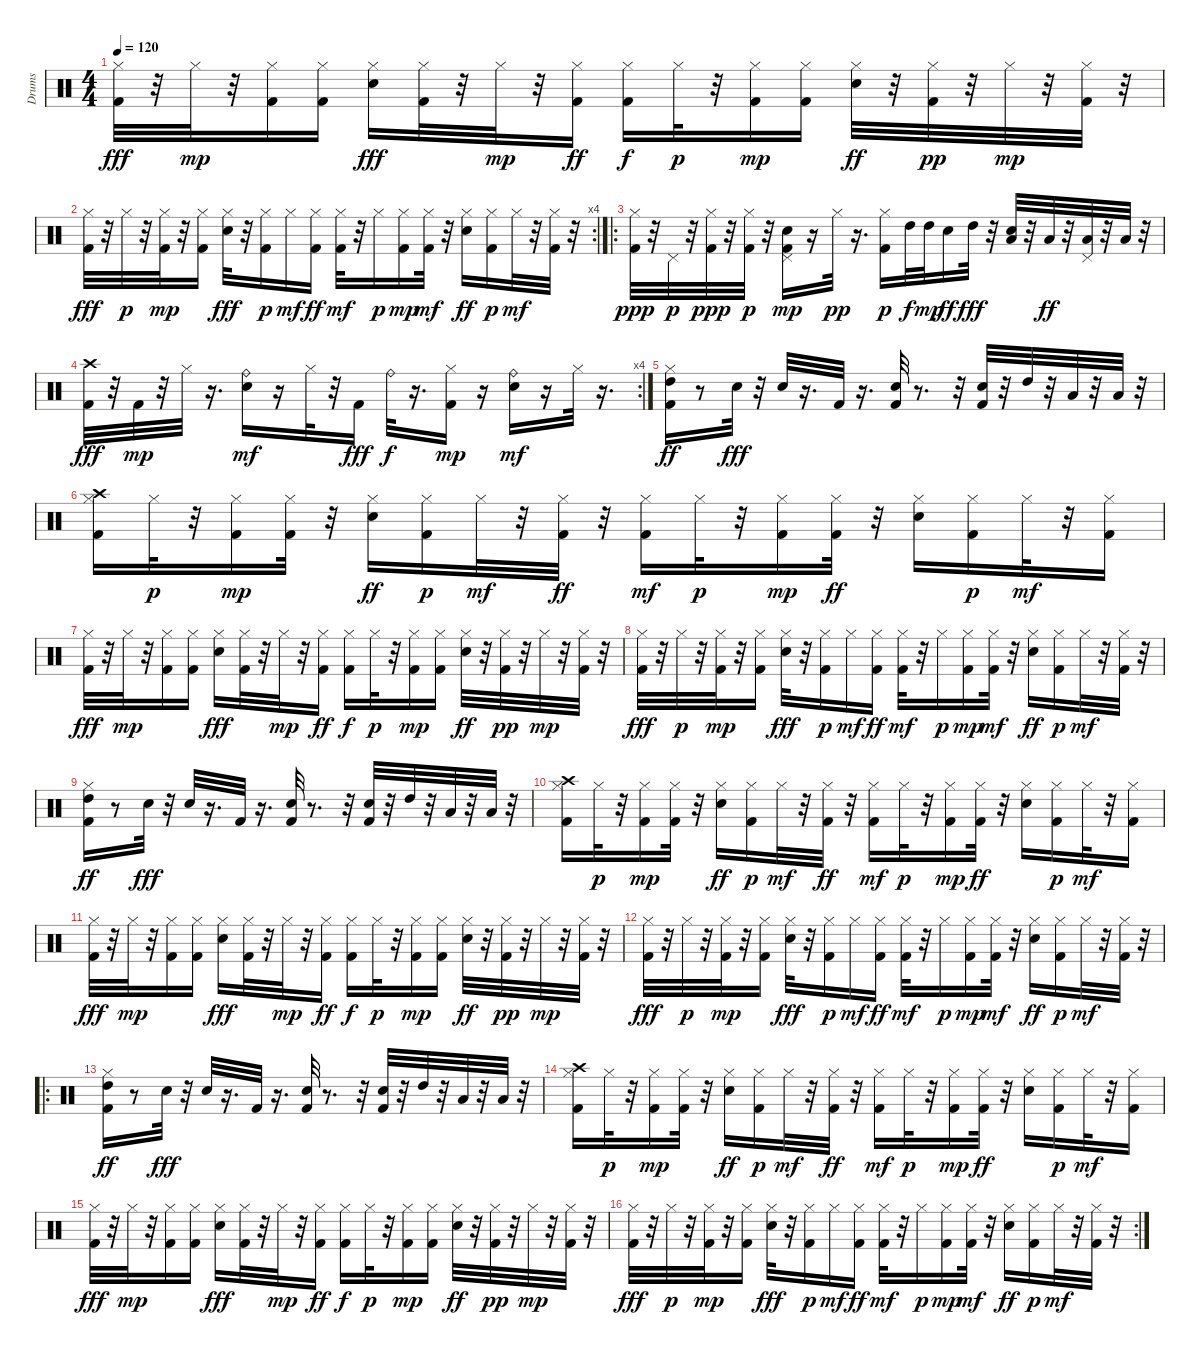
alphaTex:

\track ("Drums" "Drums") {instrument percussion}
\staff {score}
\articulation defaults
\ts (4 4)
\tempo 120
\clef neutral
\ks c
("Hi-Hat (closed)" "Kick (hit) 2").32{dy fff} r.32 "Hi-Hat (closed)".32{dy mp} r.32 ("Kick (hit) 2" "Hi-Hat (closed)").16 ("Kick (hit) 2" "Hi-Hat (closed)").16 ("Hi-Hat (closed)" "Snare (hit) 2").16{dy fff} ("Hi-Hat (closed)" "Kick (hit) 2").32 r.32 "Hi-Hat (closed)".32{dy mp} r.32 ("Kick (hit) 2" "Hi-Hat (closed)").16{dy ff} ("Hi-Hat (closed)" "Kick (hit) 2").16{dy f} "Hi-Hat (closed)".32{dy p} r.32 ("Kick (hit) 2" "Hi-Hat (closed)").16{dy mp} ("Kick (hit) 2" "Hi-Hat (closed)").16 ("Hi-Hat (closed)" "Snare (hit) 2").32{dy ff} r.32 ("Kick (hit) 2" "Hi-Hat (closed)").32{dy pp} r.32 "Hi-Hat (closed)".32{dy mp} r.32 ("Kick (hit) 2" "Hi-Hat (closed)").32 r.32 |
\rc 4
("Hi-Hat (closed)" "Kick (hit) 2").32{dy fff} r.32 "Hi-Hat (closed)".32{dy p} r.32 ("Kick (hit) 2" "Hi-Hat (closed)").32{dy mp} r.32 ("Kick (hit) 2" "Hi-Hat (closed)").16 ("Hi-Hat (closed)" "Snare (hit) 2").32{dy fff} r.32 ("Kick (hit) 2" "Hi-Hat (closed)").16{dy p} "Hi-Hat (closed)".16{dy mf} ("Hi-Hat (closed)" "Kick (hit) 2").16{dy ff} ("Kick (hit) 2" "Hi-Hat (closed)").32{dy mf} r.32 "Hi-Hat (closed)".16{dy p} ("Kick (hit) 2" "Hi-Hat (closed)").16{dy mp} ("Hi-Hat (closed)" "Kick (hit) 2").32{dy mf} r.32 ("Hi-Hat (closed)" "Snare (hit) 2").16{dy ff} ("Kick (hit) 2" "Hi-Hat (closed)").16{dy p} "Hi-Hat (closed)".32{dy mf} r.32 ("Kick (hit) 2" "Hi-Hat (closed)").32 r.32 |
\ro
("Kick (hit) 2" "Hi-Hat (closed)").32{dy ppp} r.32 "Pedal Hi-Hat (hit)".32{dy p} r.32 ("Kick (hit) 2" "Hi-Hat (closed)").32{dy ppp} r.32 ("Kick (hit) 2" "Hi-Hat (closed)").32{dy p} r.32 ("Kick (hit) 2" "Snare (hit) 2" "Pedal Hi-Hat (hit)").16{dy mp} r.16 "Hi-Hat (closed)".32{dy pp} r.16{d} ("Kick (hit) 2" "Hi-Hat (closed)").16{dy p} "High Tom (hit)".32{dy f} "High Tom (hit)".32{dy mp} "Snare (hit) 2".16{dy ff} "High Tom (hit)".32{dy fff} r.32 ("Low Tom (hit)" "Snare (hit) 2").32 r.32 "Low Tom (hit)".32{dy ff} r.32 ("Pedal Hi-Hat (hit)" "Low Floor Tom (hit)").32 r.32 "Low Floor Tom (hit)".32 r.32 |
\rc 4
("Kick (hit) 2" "Crash high (hit)").32{dy fff} r.32 "Kick (hit) 2".32{dy mp} r.32 "Hi-Hat (closed)".32 r.16{d} ("Snare (hit) 2" "Ride (bell)").16{dy mf} r.16 "Hi-Hat (closed)".32 r.32 "Kick (hit) 2".16{dy fff} "Ride (bell)".32{dy f} r.16{d} ("Kick (hit) 2" "Hi-Hat (closed)").16{dy mp} r.16 ("Snare (hit) 2" "Ride (bell)").16{dy mf} r.16 "Hi-Hat (closed)".32 r.16{d} |
("High Tom (hit)" "Kick (hit) 2" "Hi-Hat (closed)").16{dy ff} r.8 "Snare (hit) 2".32{dy fff} r.32 "Snare (hit) 2".32 r.16{d} "Kick (hit) 2".32 r.16{d} ("Kick (hit) 2" "Snare (hit) 2").32 r.8{d} r.32 ("Kick (hit) 2" "Snare (hit) 2").32 r.32 "High Tom (hit)".32 r.32 "Low Tom (hit)".32 r.32 "Low Floor Tom (hit)".32 r.32 |
("Kick (hit) 2" "Hi-Hat (closed)" "Crash high (hit)").16 "Hi-Hat (closed)".32{dy p} r.32 ("Kick (hit) 2" "Hi-Hat (closed)").16{dy mp} ("Kick (hit) 2" "Hi-Hat (closed)").32 r.32 ("Hi-Hat (closed)" "Snare (hit) 2").16{dy ff} ("Kick (hit) 2" "Hi-Hat (closed)").16{dy p} "Hi-Hat (closed)".32{dy mf} r.32 ("Kick (hit) 2" "Hi-Hat (closed)").32{dy ff} r.32 ("Kick (hit) 2" "Hi-Hat (closed)").16{dy mf} "Hi-Hat (closed)".32{dy p} r.32 ("Kick (hit) 2" "Hi-Hat (closed)").16{dy mp} ("Kick (hit) 2" "Hi-Hat (closed)").32{dy ff} r.32 ("Hi-Hat (closed)" "Snare (hit) 2").16 ("Kick (hit) 2" "Hi-Hat (closed)").16{dy p} "Hi-Hat (closed)".32{dy mf} r.32 ("Kick (hit) 2" "Hi-Hat (closed)").16 |
("Hi-Hat (closed)" "Kick (hit) 2").32{dy fff} r.32 "Hi-Hat (closed)".32{dy mp} r.32 ("Kick (hit) 2" "Hi-Hat (closed)").16 ("Kick (hit) 2" "Hi-Hat (closed)").16 ("Hi-Hat (closed)" "Snare (hit) 2").16{dy fff} ("Hi-Hat (closed)" "Kick (hit) 2").32 r.32 "Hi-Hat (closed)".32{dy mp} r.32 ("Kick (hit) 2" "Hi-Hat (closed)").16{dy ff} ("Hi-Hat (closed)" "Kick (hit) 2").16{dy f} "Hi-Hat (closed)".32{dy p} r.32 ("Kick (hit) 2" "Hi-Hat (closed)").16{dy mp} ("Kick (hit) 2" "Hi-Hat (closed)").16 ("Hi-Hat (closed)" "Snare (hit) 2").32{dy ff} r.32 ("Kick (hit) 2" "Hi-Hat (closed)").32{dy pp} r.32 "Hi-Hat (closed)".32{dy mp} r.32 ("Kick (hit) 2" "Hi-Hat (closed)").32 r.32 |
("Hi-Hat (closed)" "Kick (hit) 2").32{dy fff} r.32 "Hi-Hat (closed)".32{dy p} r.32 ("Kick (hit) 2" "Hi-Hat (closed)").32{dy mp} r.32 ("Kick (hit) 2" "Hi-Hat (closed)").16 ("Hi-Hat (closed)" "Snare (hit) 2").32{dy fff} r.32 ("Kick (hit) 2" "Hi-Hat (closed)").16{dy p} "Hi-Hat (closed)".16{dy mf} ("Hi-Hat (closed)" "Kick (hit) 2").16{dy ff} ("Kick (hit) 2" "Hi-Hat (closed)").32{dy mf} r.32 "Hi-Hat (closed)".16{dy p} ("Kick (hit) 2" "Hi-Hat (closed)").16{dy mp} ("Hi-Hat (closed)" "Kick (hit) 2").32{dy mf} r.32 ("Hi-Hat (closed)" "Snare (hit) 2").16{dy ff} ("Kick (hit) 2" "Hi-Hat (closed)").16{dy p} "Hi-Hat (closed)".32{dy mf} r.32 ("Kick (hit) 2" "Hi-Hat (closed)").32 r.32 |
("High Tom (hit)" "Kick (hit) 2" "Hi-Hat (closed)").16{dy ff} r.8 "Snare (hit) 2".32{dy fff} r.32 "Snare (hit) 2".32 r.16{d} "Kick (hit) 2".32 r.16{d} ("Kick (hit) 2" "Snare (hit) 2").32 r.8{d} r.32 ("Kick (hit) 2" "Snare (hit) 2").32 r.32 "High Tom (hit)".32 r.32 "Low Tom (hit)".32 r.32 "Low Floor Tom (hit)".32 r.32 |
("Kick (hit) 2" "Hi-Hat (closed)" "Crash high (hit)").16 "Hi-Hat (closed)".32{dy p} r.32 ("Kick (hit) 2" "Hi-Hat (closed)").16{dy mp} ("Kick (hit) 2" "Hi-Hat (closed)").32 r.32 ("Hi-Hat (closed)" "Snare (hit) 2").16{dy ff} ("Kick (hit) 2" "Hi-Hat (closed)").16{dy p} "Hi-Hat (closed)".32{dy mf} r.32 ("Kick (hit) 2" "Hi-Hat (closed)").32{dy ff} r.32 ("Kick (hit) 2" "Hi-Hat (closed)").16{dy mf} "Hi-Hat (closed)".32{dy p} r.32 ("Kick (hit) 2" "Hi-Hat (closed)").16{dy mp} ("Kick (hit) 2" "Hi-Hat (closed)").32{dy ff} r.32 ("Hi-Hat (closed)" "Snare (hit) 2").16 ("Kick (hit) 2" "Hi-Hat (closed)").16{dy p} "Hi-Hat (closed)".32{dy mf} r.32 ("Kick (hit) 2" "Hi-Hat (closed)").16 |
("Hi-Hat (closed)" "Kick (hit) 2").32{dy fff} r.32 "Hi-Hat (closed)".32{dy mp} r.32 ("Kick (hit) 2" "Hi-Hat (closed)").16 ("Kick (hit) 2" "Hi-Hat (closed)").16 ("Hi-Hat (closed)" "Snare (hit) 2").16{dy fff} ("Hi-Hat (closed)" "Kick (hit) 2").32 r.32 "Hi-Hat (closed)".32{dy mp} r.32 ("Kick (hit) 2" "Hi-Hat (closed)").16{dy ff} ("Hi-Hat (closed)" "Kick (hit) 2").16{dy f} "Hi-Hat (closed)".32{dy p} r.32 ("Kick (hit) 2" "Hi-Hat (closed)").16{dy mp} ("Kick (hit) 2" "Hi-Hat (closed)").16 ("Hi-Hat (closed)" "Snare (hit) 2").32{dy ff} r.32 ("Kick (hit) 2" "Hi-Hat (closed)").32{dy pp} r.32 "Hi-Hat (closed)".32{dy mp} r.32 ("Kick (hit) 2" "Hi-Hat (closed)").32 r.32 |
("Hi-Hat (closed)" "Kick (hit) 2").32{dy fff} r.32 "Hi-Hat (closed)".32{dy p} r.32 ("Kick (hit) 2" "Hi-Hat (closed)").32{dy mp} r.32 ("Kick (hit) 2" "Hi-Hat (closed)").16 ("Hi-Hat (closed)" "Snare (hit) 2").32{dy fff} r.32 ("Kick (hit) 2" "Hi-Hat (closed)").16{dy p} "Hi-Hat (closed)".16{dy mf} ("Hi-Hat (closed)" "Kick (hit) 2").16{dy ff} ("Kick (hit) 2" "Hi-Hat (closed)").32{dy mf} r.32 "Hi-Hat (closed)".16{dy p} ("Kick (hit) 2" "Hi-Hat (closed)").16{dy mp} ("Hi-Hat (closed)" "Kick (hit) 2").32{dy mf} r.32 ("Hi-Hat (closed)" "Snare (hit) 2").16{dy ff} ("Kick (hit) 2" "Hi-Hat (closed)").16{dy p} "Hi-Hat (closed)".32{dy mf} r.32 ("Kick (hit) 2" "Hi-Hat (closed)").32 r.32 |
\ro
("High Tom (hit)" "Kick (hit) 2" "Hi-Hat (closed)").16{dy ff} r.8 "Snare (hit) 2".32{dy fff} r.32 "Snare (hit) 2".32 r.16{d} "Kick (hit) 2".32 r.16{d} ("Kick (hit) 2" "Snare (hit) 2").32 r.8{d} r.32 ("Kick (hit) 2" "Snare (hit) 2").32 r.32 "High Tom (hit)".32 r.32 "Low Tom (hit)".32 r.32 "Low Floor Tom (hit)".32 r.32 |
("Kick (hit) 2" "Hi-Hat (closed)" "Crash high (hit)").16 "Hi-Hat (closed)".32{dy p} r.32 ("Kick (hit) 2" "Hi-Hat (closed)").16{dy mp} ("Kick (hit) 2" "Hi-Hat (closed)").32 r.32 ("Hi-Hat (closed)" "Snare (hit) 2").16{dy ff} ("Kick (hit) 2" "Hi-Hat (closed)").16{dy p} "Hi-Hat (closed)".32{dy mf} r.32 ("Kick (hit) 2" "Hi-Hat (closed)").32{dy ff} r.32 ("Kick (hit) 2" "Hi-Hat (closed)").16{dy mf} "Hi-Hat (closed)".32{dy p} r.32 ("Kick (hit) 2" "Hi-Hat (closed)").16{dy mp} ("Kick (hit) 2" "Hi-Hat (closed)").32{dy ff} r.32 ("Hi-Hat (closed)" "Snare (hit) 2").16 ("Kick (hit) 2" "Hi-Hat (closed)").16{dy p} "Hi-Hat (closed)".32{dy mf} r.32 ("Kick (hit) 2" "Hi-Hat (closed)").16 |
("Hi-Hat (closed)" "Kick (hit) 2").32{dy fff} r.32 "Hi-Hat (closed)".32{dy mp} r.32 ("Kick (hit) 2" "Hi-Hat (closed)").16 ("Kick (hit) 2" "Hi-Hat (closed)").16 ("Hi-Hat (closed)" "Snare (hit) 2").16{dy fff} ("Hi-Hat (closed)" "Kick (hit) 2").32 r.32 "Hi-Hat (closed)".32{dy mp} r.32 ("Kick (hit) 2" "Hi-Hat (closed)").16{dy ff} ("Hi-Hat (closed)" "Kick (hit) 2").16{dy f} "Hi-Hat (closed)".32{dy p} r.32 ("Kick (hit) 2" "Hi-Hat (closed)").16{dy mp} ("Kick (hit) 2" "Hi-Hat (closed)").16 ("Hi-Hat (closed)" "Snare (hit) 2").32{dy ff} r.32 ("Kick (hit) 2" "Hi-Hat (closed)").32{dy pp} r.32 "Hi-Hat (closed)".32{dy mp} r.32 ("Kick (hit) 2" "Hi-Hat (closed)").32 r.32 |
\rc 2
("Hi-Hat (closed)" "Kick (hit) 2").32{dy fff} r.32 "Hi-Hat (closed)".32{dy p} r.32 ("Kick (hit) 2" "Hi-Hat (closed)").32{dy mp} r.32 ("Kick (hit) 2" "Hi-Hat (closed)").16 ("Hi-Hat (closed)" "Snare (hit) 2").32{dy fff} r.32 ("Kick (hit) 2" "Hi-Hat (closed)").16{dy p} "Hi-Hat (closed)".16{dy mf} ("Hi-Hat (closed)" "Kick (hit) 2").16{dy ff} ("Kick (hit) 2" "Hi-Hat (closed)").32{dy mf} r.32 "Hi-Hat (closed)".16{dy p} ("Kick (hit) 2" "Hi-Hat (closed)").16{dy mp} ("Hi-Hat (closed)" "Kick (hit) 2").32{dy mf} r.32 ("Hi-Hat (closed)" "Snare (hit) 2").16{dy ff} ("Kick (hit) 2" "Hi-Hat (closed)").16{dy p} "Hi-Hat (closed)".32{dy mf} r.32 ("Kick (hit) 2" "Hi-Hat (closed)").32 r.32
